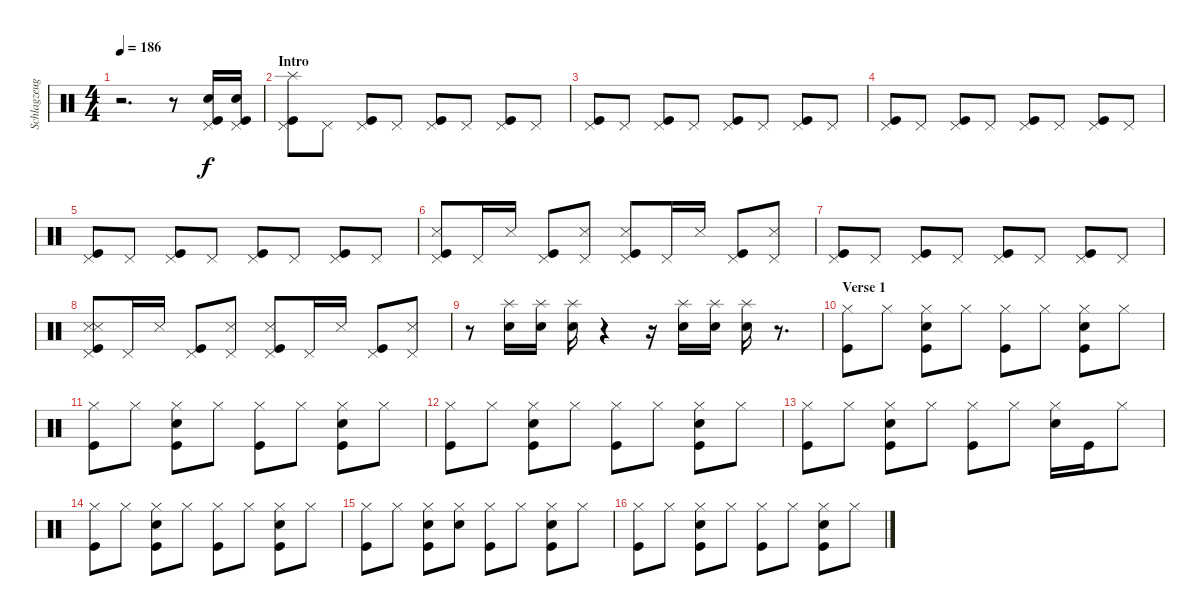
\track ("Schlagzeug - Bela B." "Schlagzeug") {instrument percussion}
\staff {score}
\articulation defaults
\ts (4 4)
\tempo 186
\clef neutral
\ks c
r.2{d dy f} r.8 ("Kick (hit)" "Pedal Hi-Hat (hit)" "Electric Snare (hit)").16 ("Pedal Hi-Hat (hit)" "Electric Snare (hit)" "Kick (hit)").16 |
\section ("" "Intro")
("Splash (hit)" "Pedal Hi-Hat (hit)" "Kick (hit)").8 "Pedal Hi-Hat (hit)".8 ("Pedal Hi-Hat (hit)" "Kick (hit)").8 "Pedal Hi-Hat (hit)".8 ("Pedal Hi-Hat (hit)" "Kick (hit)").8 "Pedal Hi-Hat (hit)".8 ("Kick (hit)" "Pedal Hi-Hat (hit)").8 "Pedal Hi-Hat (hit)".8 |
("Pedal Hi-Hat (hit)" "Kick (hit)").8 "Pedal Hi-Hat (hit)".8 ("Pedal Hi-Hat (hit)" "Kick (hit)").8 "Pedal Hi-Hat (hit)".8 ("Kick (hit)" "Pedal Hi-Hat (hit)").8 "Pedal Hi-Hat (hit)".8 ("Kick (hit)" "Pedal Hi-Hat (hit)").8 "Pedal Hi-Hat (hit)".8 |
("Pedal Hi-Hat (hit)" "Kick (hit)").8 "Pedal Hi-Hat (hit)".8 ("Kick (hit)" "Pedal Hi-Hat (hit)").8 "Pedal Hi-Hat (hit)".8 ("Pedal Hi-Hat (hit)" "Kick (hit)").8 "Pedal Hi-Hat (hit)".8 ("Kick (hit)" "Pedal Hi-Hat (hit)").8 "Pedal Hi-Hat (hit)".8 |
("Kick (hit)" "Pedal Hi-Hat (hit)").8 "Pedal Hi-Hat (hit)".8 ("Kick (hit)" "Pedal Hi-Hat (hit)").8 "Pedal Hi-Hat (hit)".8 ("Pedal Hi-Hat (hit)" "Kick (hit)").8 "Pedal Hi-Hat (hit)".8 ("Kick (hit)" "Pedal Hi-Hat (hit)").8 "Pedal Hi-Hat (hit)".8 |
("Pedal Hi-Hat (hit)" "Kick (hit)" "Snare (side stick) 3").8 "Pedal Hi-Hat (hit)".16 "Snare (side stick) 3".16 ("Pedal Hi-Hat (hit)" "Kick (hit)").8 ("Pedal Hi-Hat (hit)" "Snare (side stick) 3").8 ("Pedal Hi-Hat (hit)" "Snare (side stick) 3" "Kick (hit)").8 "Pedal Hi-Hat (hit)".16 "Snare (side stick) 3".16 ("Pedal Hi-Hat (hit)" "Kick (hit)").8 ("Snare (side stick) 3" "Pedal Hi-Hat (hit)").8 |
("Kick (hit)" "Pedal Hi-Hat (hit)").8 "Pedal Hi-Hat (hit)".8 ("Kick (hit)" "Pedal Hi-Hat (hit)").8 "Pedal Hi-Hat (hit)".8 ("Kick (hit)" "Pedal Hi-Hat (hit)").8 "Pedal Hi-Hat (hit)".8 ("Kick (hit)" "Pedal Hi-Hat (hit)").8 "Pedal Hi-Hat (hit)".8 |
("Pedal Hi-Hat (hit)" "Kick (hit)" "Snare (side stick) 3" "Snare (side stick) 3").8 "Pedal Hi-Hat (hit)".16 "Snare (side stick) 3".16 ("Pedal Hi-Hat (hit)" "Kick (hit)").8 ("Snare (side stick) 3" "Pedal Hi-Hat (hit)").8 ("Pedal Hi-Hat (hit)" "Kick (hit)" "Snare (side stick) 3").8 "Pedal Hi-Hat (hit)".16 "Snare (side stick) 3".16 ("Kick (hit)" "Pedal Hi-Hat (hit)").8 ("Pedal Hi-Hat (hit)" "Snare (side stick) 3").8 |
r.8 ("Splash (hit)" "Electric Snare (hit)").16 ("Splash (hit)" "Electric Snare (hit)").16 ("Splash (hit)" "Electric Snare (hit)").16 r.4 r.16 ("Splash (hit)" "Electric Snare (hit)").16 ("Splash (hit)" "Electric Snare (hit)").16 ("Splash (hit)" "Electric Snare (hit)").16 r.8{d} |
\section ("" "Verse 1")
("Kick (hit)" "Hi-Hat (closed)").8 "Hi-Hat (closed)".8 ("Electric Snare (hit)" "Hi-Hat (closed)" "Kick (hit)").8 "Hi-Hat (closed)".8 ("Hi-Hat (closed)" "Kick (hit)").8 "Hi-Hat (closed)".8 ("Hi-Hat (closed)" "Electric Snare (hit)" "Kick (hit)").8 "Hi-Hat (closed)".8 |
("Hi-Hat (closed)" "Kick (hit)").8 "Hi-Hat (closed)".8 ("Hi-Hat (closed)" "Electric Snare (hit)" "Kick (hit)").8 "Hi-Hat (closed)".8 ("Hi-Hat (closed)" "Kick (hit)").8 "Hi-Hat (closed)".8 ("Electric Snare (hit)" "Hi-Hat (closed)" "Kick (hit)").8 "Hi-Hat (closed)".8 |
("Hi-Hat (closed)" "Kick (hit)").8 "Hi-Hat (closed)".8 ("Hi-Hat (closed)" "Electric Snare (hit)" "Kick (hit)").8 "Hi-Hat (closed)".8 ("Kick (hit)" "Hi-Hat (closed)").8 "Hi-Hat (closed)".8 ("Hi-Hat (closed)" "Electric Snare (hit)" "Kick (hit)").8 "Hi-Hat (closed)".8 |
("Kick (hit)" "Hi-Hat (closed)").8 "Hi-Hat (closed)".8 ("Electric Snare (hit)" "Hi-Hat (closed)" "Kick (hit)").8 "Hi-Hat (closed)".8 ("Hi-Hat (closed)" "Kick (hit)").8 "Hi-Hat (closed)".8 ("Electric Snare (hit)" "Hi-Hat (closed)").16 "Kick (hit)".16 "Hi-Hat (closed)".8 |
("Kick (hit)" "Hi-Hat (closed)").8 "Hi-Hat (closed)".8 ("Electric Snare (hit)" "Hi-Hat (closed)" "Kick (hit)").8 "Hi-Hat (closed)".8 ("Kick (hit)" "Hi-Hat (closed)").8 "Hi-Hat (closed)".8 ("Electric Snare (hit)" "Hi-Hat (closed)" "Kick (hit)").8 "Hi-Hat (closed)".8 |
("Kick (hit)" "Hi-Hat (closed)").8 "Hi-Hat (closed)".8 ("Electric Snare (hit)" "Hi-Hat (closed)" "Kick (hit)").8 ("Electric Snare (hit)" "Hi-Hat (closed)").8 ("Kick (hit)" "Hi-Hat (closed)").8 "Hi-Hat (closed)".8 ("Electric Snare (hit)" "Hi-Hat (closed)" "Kick (hit)").8 "Hi-Hat (closed)".8 |
("Kick (hit)" "Hi-Hat (closed)").8 "Hi-Hat (closed)".8 ("Electric Snare (hit)" "Hi-Hat (closed)" "Kick (hit)").8 "Hi-Hat (closed)".8 ("Hi-Hat (closed)" "Kick (hit)").8 "Hi-Hat (closed)".8 ("Electric Snare (hit)" "Hi-Hat (closed)" "Kick (hit)").8 "Hi-Hat (closed)".8
